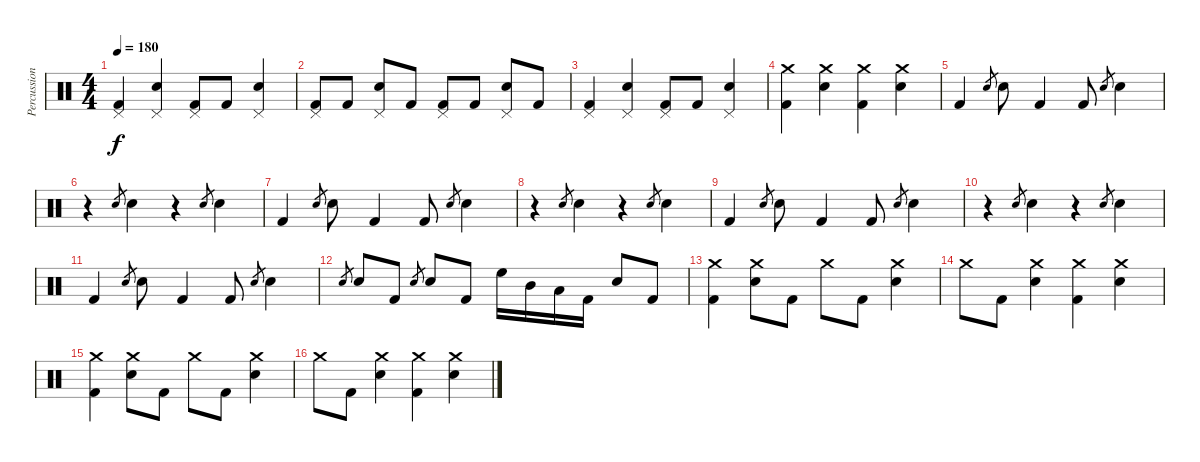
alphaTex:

\track ("Percussion" "Percussion") {instrument percussion}
\staff {score}
\articulation defaults
\ts (4 4)
\tempo 180
\clef neutral
\ks c
("Kick (hit) 2" "Pedal Hi-Hat (hit)").4{dy f} ("Electric Snare (hit)" "Pedal Hi-Hat (hit)").4 ("Kick (hit) 2" "Pedal Hi-Hat (hit)").8 "Kick (hit) 2".8 ("Electric Snare (hit)" "Pedal Hi-Hat (hit)").4 |
("Kick (hit) 2" "Pedal Hi-Hat (hit)").8 "Kick (hit) 2".8 ("Electric Snare (hit)" "Pedal Hi-Hat (hit)").8 "Kick (hit) 2".8 ("Kick (hit) 2" "Pedal Hi-Hat (hit)").8 "Kick (hit) 2".8 ("Electric Snare (hit)" "Pedal Hi-Hat (hit)").8 "Kick (hit) 2".8 |
("Kick (hit) 2" "Pedal Hi-Hat (hit)").4 ("Electric Snare (hit)" "Pedal Hi-Hat (hit)").4 ("Kick (hit) 2" "Pedal Hi-Hat (hit)").8 "Kick (hit) 2".8 ("Electric Snare (hit)" "Pedal Hi-Hat (hit)").4 |
("Kick (hit) 2" "Crash medium (hit)").4 ("Electric Snare (hit)" "Crash medium (hit)").4 ("Kick (hit) 2" "Crash medium (hit)").4 ("Electric Snare (hit)" "Crash medium (hit)").4 |
"Kick (hit) 2".4 "Electric Snare (hit)".8{gr} "Electric Snare (hit)".8 "Kick (hit) 2".4 "Kick (hit) 2".8 "Electric Snare (hit)".8{gr} "Electric Snare (hit)".4 |
r.4 "Electric Snare (hit)".8{gr} "Electric Snare (hit)".4 r.4 "Electric Snare (hit)".8{gr} "Electric Snare (hit)".4 |
"Kick (hit) 2".4 "Electric Snare (hit)".8{gr} "Electric Snare (hit)".8 "Kick (hit) 2".4 "Kick (hit) 2".8 "Electric Snare (hit)".8{gr} "Electric Snare (hit)".4 |
r.4 "Electric Snare (hit)".8{gr} "Electric Snare (hit)".4 r.4 "Electric Snare (hit)".8{gr} "Electric Snare (hit)".4 |
"Kick (hit) 2".4 "Electric Snare (hit)".8{gr} "Electric Snare (hit)".8 "Kick (hit) 2".4 "Kick (hit) 2".8 "Electric Snare (hit)".8{gr} "Electric Snare (hit)".4 |
r.4 "Electric Snare (hit)".8{gr} "Electric Snare (hit)".4 r.4 "Electric Snare (hit)".8{gr} "Electric Snare (hit)".4 |
"Kick (hit) 2".4 "Electric Snare (hit)".8{gr} "Electric Snare (hit)".8 "Kick (hit) 2".4 "Kick (hit) 2".8 "Electric Snare (hit)".8{gr} "Electric Snare (hit)".4 |
"Electric Snare (hit)".8{gr} "Electric Snare (hit)".8 "Kick (hit) 2".8 "Electric Snare (hit)".8{gr} "Electric Snare (hit)".8 "Kick (hit) 2".8 "High Floor Tom (hit)".16 "Mid Tom (hit)".16 "Low Tom (hit)".16 "Kick (hit) 2".16 "Electric Snare (hit)".8 "Kick (hit) 2".8 |
("Kick (hit) 2" "Crash medium (hit)").4 ("Electric Snare (hit)" "Crash medium (hit)").8 "Kick (hit) 2".8 "Crash medium (hit)".8 "Kick (hit) 2".8 ("Electric Snare (hit)" "Crash medium (hit)").4 |
"Crash medium (hit)".8 "Kick (hit) 2".8 ("Electric Snare (hit)" "Crash medium (hit)").4 ("Kick (hit) 2" "Crash medium (hit)").4 ("Electric Snare (hit)" "Crash medium (hit)").4 |
("Kick (hit) 2" "Crash medium (hit)").4 ("Electric Snare (hit)" "Crash medium (hit)").8 "Kick (hit) 2".8 "Crash medium (hit)".8 "Kick (hit) 2".8 ("Electric Snare (hit)" "Crash medium (hit)").4 |
"Crash medium (hit)".8 "Kick (hit) 2".8 ("Electric Snare (hit)" "Crash medium (hit)").4 ("Kick (hit) 2" "Crash medium (hit)").4 ("Electric Snare (hit)" "Crash medium (hit)").4
